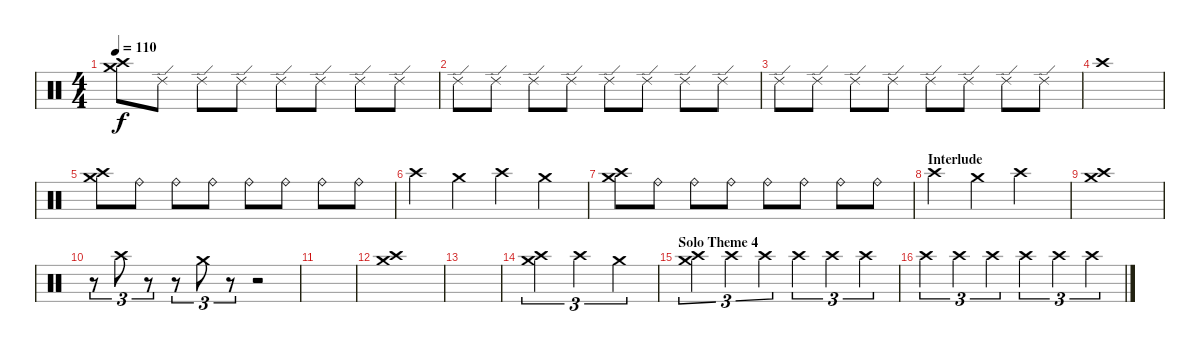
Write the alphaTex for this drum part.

\track "" {instrument percussion}
\staff {score}
\articulation defaults
\ts (4 4)
\tempo 110
\clef neutral
\ks c
("Crash medium (hit)" "Crash high (hit)").8{dy f} "Ride (edge) 2".8 "Ride (edge) 2".8 "Ride (edge) 2".8 "Ride (edge) 2".8 "Ride (edge) 2".8 "Ride (edge) 2".8 "Ride (edge) 2".8 |
"Ride (edge) 2".8 "Ride (edge) 2".8 "Ride (edge) 2".8 "Ride (edge) 2".8 "Ride (edge) 2".8 "Ride (edge) 2".8 "Ride (edge) 2".8 "Ride (edge) 2".8 |
"Ride (edge) 2".8 "Ride (edge) 2".8 "Ride (edge) 2".8 "Ride (edge) 2".8 "Ride (edge) 2".8 "Ride (edge) 2".8 "Ride (edge) 2".8 "Ride (edge) 2".8 |
"Crash high (hit)".1 |
("Crash medium (hit)" "Crash high (hit)").8 "Ride (bell)".8 "Ride (bell)".8 "Ride (bell)".8 "Ride (bell)".8 "Ride (bell)".8 "Ride (bell)".8 "Ride (bell)".8 |
"Crash high (hit)".4 "Crash medium (hit)".4 "Crash high (hit)".4 "Crash medium (hit)".4 |
("Crash medium (hit)" "Crash high (hit)").8 "Ride (bell)".8 "Ride (bell)".8 "Ride (bell)".8 "Ride (bell)".8 "Ride (bell)".8 "Ride (bell)".8 "Ride (bell)".8 |
\section ("" "Interlude")
"Crash high (hit)".4 "Crash medium (hit)".4 "Crash high (hit)".2 |
("Crash medium (hit)" "Crash high (hit)").1 |
r.8{tu (3 2)} "Crash high (hit)".8{tu (3 2)} r.8{tu (3 2)} r.8{tu (3 2)} "Crash medium (hit)".8{tu (3 2)} r.8{tu (3 2)} r.2 |
|
("Crash medium (hit)" "Crash high (hit)").1 |
|
("Crash medium (hit)" "Crash high (hit)").2{tu (3 2)} "Crash high (hit)".2{tu (3 2)} "Crash medium (hit)".2{tu (3 2)} |
\section ("" "Solo Theme 4")
("Crash medium (hit)" "Crash high (hit)").4{tu (3 2)} "Crash high (hit)".4{tu (3 2)} "Crash high (hit)".4{tu (3 2)} "Crash high (hit)".4{tu (3 2)} "Crash high (hit)".4{tu (3 2)} "Crash high (hit)".4{tu (3 2)} |
"Crash high (hit)".4{tu (3 2)} "Crash high (hit)".4{tu (3 2)} "Crash high (hit)".4{tu (3 2)} "Crash high (hit)".4{tu (3 2)} "Crash high (hit)".4{tu (3 2)} "Crash high (hit)".4{tu (3 2)}
